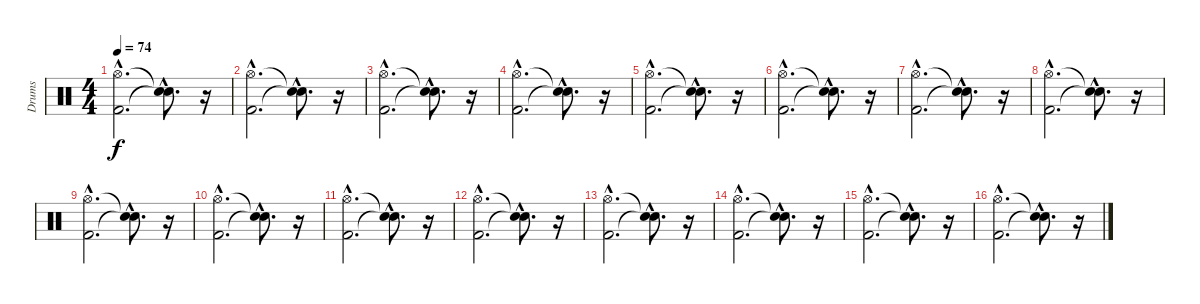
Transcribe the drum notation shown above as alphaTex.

\track ("Drums" "Drums") {instrument percussion}
\staff {score}
\articulation defaults
\ts (4 4)
\tempo 74
\clef neutral
\ks c
("Kick (hit) 2"{hac} "Hi-Hat (open)"{hac}).2{d dy f} ("Snare (hit)"{hac t} "Snare (hit)"{hac t}).8{d} r.16 |
("Kick (hit) 2"{hac} "Hi-Hat (open)"{hac}).2{d} ("Snare (hit)"{hac t} "Snare (hit)"{hac t}).8{d} r.16 |
("Kick (hit) 2"{hac} "Hi-Hat (open)"{hac}).2{d} ("Snare (hit)"{hac t} "Snare (hit)"{hac t}).8{d} r.16 |
("Kick (hit) 2"{hac} "Hi-Hat (open)"{hac}).2{d} ("Snare (hit)"{hac t} "Snare (hit)"{hac t}).8{d} r.16 |
("Kick (hit) 2"{hac} "Hi-Hat (open)"{hac}).2{d} ("Snare (hit)"{hac t} "Snare (hit)"{hac t}).8{d} r.16 |
("Kick (hit) 2"{hac} "Hi-Hat (open)"{hac}).2{d} ("Snare (hit)"{hac t} "Snare (hit)"{hac t}).8{d} r.16 |
("Kick (hit) 2"{hac} "Hi-Hat (open)"{hac}).2{d} ("Snare (hit)"{hac t} "Snare (hit)"{hac t}).8{d} r.16 |
("Kick (hit) 2"{hac} "Hi-Hat (open)"{hac}).2{d} ("Snare (hit)"{hac t} "Snare (hit)"{hac t}).8{d} r.16 |
("Kick (hit) 2"{hac} "Hi-Hat (open)"{hac}).2{d} ("Snare (hit)"{hac t} "Snare (hit)"{hac t}).8{d} r.16 |
("Kick (hit) 2"{hac} "Hi-Hat (open)"{hac}).2{d} ("Snare (hit)"{hac t} "Snare (hit)"{hac t}).8{d} r.16 |
("Kick (hit) 2"{hac} "Hi-Hat (open)"{hac}).2{d} ("Snare (hit)"{hac t} "Snare (hit)"{hac t}).8{d} r.16 |
("Kick (hit) 2"{hac} "Hi-Hat (open)"{hac}).2{d} ("Snare (hit)"{hac t} "Snare (hit)"{hac t}).8{d} r.16 |
("Kick (hit) 2"{hac} "Hi-Hat (open)"{hac}).2{d} ("Snare (hit)"{hac t} "Snare (hit)"{hac t}).8{d} r.16 |
("Kick (hit) 2"{hac} "Hi-Hat (open)"{hac}).2{d} ("Snare (hit)"{hac t} "Snare (hit)"{hac t}).8{d} r.16 |
("Kick (hit) 2"{hac} "Hi-Hat (open)"{hac}).2{d} ("Snare (hit)"{hac t} "Snare (hit)"{hac t}).8{d} r.16 |
("Kick (hit) 2"{hac} "Hi-Hat (open)"{hac}).2{d} ("Snare (hit)"{hac t} "Snare (hit)"{hac t}).8{d} r.16
